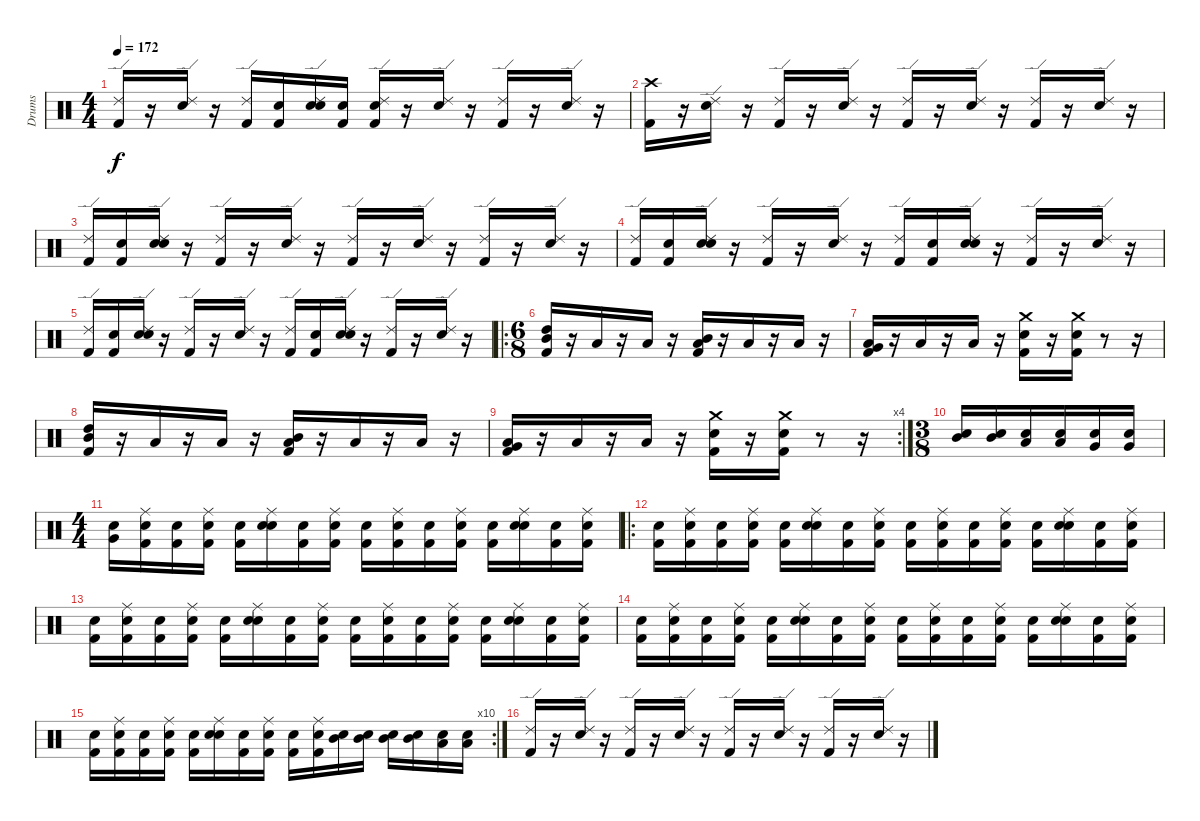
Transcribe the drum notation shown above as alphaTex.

\track ("Drums" "Drums") {instrument percussion}
\staff {score}
\articulation defaults
\ts (4 4)
\tempo 172
\clef neutral
\ks c
("Kick (hit) 2" "Ride (edge) 2").16{dy f} r.16 ("Snare (hit) 2" "Ride (edge) 2").16 r.16 ("Kick (hit) 2" "Ride (edge) 2").16 ("Snare (hit)" "Kick (hit) 2").16 ("Snare (hit)" "Snare (hit) 2" "Ride (edge) 2").16 ("Snare (hit)" "Kick (hit) 2").16 ("Snare (hit)" "Kick (hit) 2" "Ride (edge) 2").16 r.16 ("Snare (hit) 2" "Ride (edge) 2").16 r.16 ("Kick (hit) 2" "Ride (edge) 2").16 r.16 ("Snare (hit) 2" "Ride (edge) 2").16 r.16 |
("Kick (hit) 2" "Crash high (hit)").16 r.16 ("Snare (hit) 2" "Ride (edge) 2").16 r.16 ("Kick (hit) 2" "Ride (edge) 2").16 r.16 ("Snare (hit) 2" "Ride (edge) 2").16 r.16 ("Kick (hit) 2" "Ride (edge) 2").16 r.16 ("Snare (hit) 2" "Ride (edge) 2").16 r.16 ("Kick (hit) 2" "Ride (edge) 2").16 r.16 ("Snare (hit) 2" "Ride (edge) 2").16 r.16 |
("Kick (hit) 2" "Ride (edge) 2").16 ("Snare (hit)" "Kick (hit) 2").16 ("Snare (hit)" "Snare (hit) 2" "Ride (edge) 2").16 r.16 ("Kick (hit) 2" "Ride (edge) 2").16 r.16 ("Snare (hit) 2" "Ride (edge) 2").16 r.16 ("Kick (hit) 2" "Ride (edge) 2").16 r.16 ("Snare (hit) 2" "Ride (edge) 2").16 r.16 ("Kick (hit) 2" "Ride (edge) 2").16 r.16 ("Snare (hit) 2" "Ride (edge) 2").16 r.16 |
("Kick (hit) 2" "Ride (edge) 2").16 ("Snare (hit)" "Kick (hit) 2").16 ("Snare (hit)" "Snare (hit) 2" "Ride (edge) 2").16 r.16 ("Kick (hit) 2" "Ride (edge) 2").16 r.16 ("Snare (hit) 2" "Ride (edge) 2").16 r.16 ("Kick (hit) 2" "Ride (edge) 2").16 ("Snare (hit)" "Kick (hit) 2").16 ("Snare (hit)" "Snare (hit) 2" "Ride (edge) 2").16 r.16 ("Kick (hit) 2" "Ride (edge) 2").16 r.16 ("Snare (hit) 2" "Ride (edge) 2").16 r.16 |
("Kick (hit) 2" "Ride (edge) 2").16 ("Snare (hit)" "Kick (hit) 2").16 ("Snare (hit)" "Snare (hit) 2" "Ride (edge) 2").16 r.16 ("Kick (hit) 2" "Ride (edge) 2").16 r.16 ("Snare (hit) 2" "Ride (edge) 2").16 r.16 ("Kick (hit) 2" "Ride (edge) 2").16 ("Snare (hit)" "Kick (hit) 2").16 ("Snare (hit)" "Snare (hit) 2" "Ride (edge) 2").16 r.16 ("Kick (hit) 2" "Ride (edge) 2").16 r.16 ("Snare (hit) 2" "Ride (edge) 2").16 r.16 |
\ro
\ts (6 8)
("Kick (hit) 2" "Mid Tom (hit)" "High Tom (hit)").16 r.16 "Low Floor Tom (hit)".16 r.16 "Low Floor Tom (hit)".16 r.16 ("Kick (hit) 2" "Low Tom (hit)" "Mid Tom (hit)").16 r.16 "Low Floor Tom (hit)".16 r.16 "Low Floor Tom (hit)".16 r.16 |
("Kick (hit) 2" "Very Low Tom (hit)" "Low Tom (hit)").16 r.16 "Low Floor Tom (hit)".16 r.16 "Low Floor Tom (hit)".16 r.16 ("Kick (hit) 2" "Snare (hit) 2" "Crash medium (hit)").16 r.16 ("Kick (hit) 2" "Snare (hit) 2" "Crash medium (hit)").16 r.8 r.16 |
("Kick (hit) 2" "Mid Tom (hit)" "High Tom (hit)").16 r.16 "Low Floor Tom (hit)".16 r.16 "Low Floor Tom (hit)".16 r.16 ("Kick (hit) 2" "Low Tom (hit)" "Mid Tom (hit)").16 r.16 "Low Floor Tom (hit)".16 r.16 "Low Floor Tom (hit)".16 r.16 |
\rc 4
("Kick (hit) 2" "Very Low Tom (hit)" "Low Tom (hit)").16 r.16 "Low Floor Tom (hit)".16 r.16 "Low Floor Tom (hit)".16 r.16 ("Kick (hit) 2" "Snare (hit) 2" "Crash medium (hit)").16 r.16 ("Kick (hit) 2" "Snare (hit) 2" "Crash medium (hit)").16 r.8 r.16 |
\ts (3 8)
("Snare (hit)" "Mid Tom (hit)").16 ("Snare (hit)" "Mid Tom (hit)").16 ("Snare (hit)" "Low Tom (hit)").16 ("Snare (hit)" "Low Tom (hit)").16 ("Snare (hit)" "Very Low Tom (hit)").16 ("Snare (hit)" "Very Low Tom (hit)").16 |
\ts (4 4)
("Snare (hit)" "Very Low Tom (hit)").16 ("Snare (hit)" "Kick (hit) 2" "Ride (middle)").16 ("Snare (hit)" "Kick (hit) 2").16 ("Snare (hit)" "Kick (hit) 2" "Ride (middle)").16 ("Snare (hit)" "Kick (hit) 2").16 ("Snare (hit)" "Snare (hit) 2" "Ride (middle)").16 ("Snare (hit)" "Kick (hit) 2").16 ("Snare (hit)" "Kick (hit) 2" "Ride (middle)").16 ("Snare (hit)" "Kick (hit) 2").16 ("Snare (hit)" "Kick (hit) 2" "Ride (middle)").16 ("Snare (hit)" "Kick (hit) 2").16 ("Snare (hit)" "Kick (hit) 2" "Ride (middle)").16 ("Snare (hit)" "Kick (hit) 2").16 ("Snare (hit)" "Snare (hit) 2" "Ride (middle)").16 ("Snare (hit)" "Kick (hit) 2").16 ("Snare (hit)" "Kick (hit) 2" "Ride (middle)").16 |
\ro
("Snare (hit)" "Kick (hit) 2").16 ("Snare (hit)" "Kick (hit) 2" "Ride (middle)").16 ("Snare (hit)" "Kick (hit) 2").16 ("Snare (hit)" "Kick (hit) 2" "Ride (middle)").16 ("Snare (hit)" "Kick (hit) 2").16 ("Snare (hit)" "Snare (hit) 2" "Ride (middle)").16 ("Snare (hit)" "Kick (hit) 2").16 ("Snare (hit)" "Kick (hit) 2" "Ride (middle)").16 ("Snare (hit)" "Kick (hit) 2").16 ("Snare (hit)" "Kick (hit) 2" "Ride (middle)").16 ("Snare (hit)" "Kick (hit) 2").16 ("Snare (hit)" "Kick (hit) 2" "Ride (middle)").16 ("Snare (hit)" "Kick (hit) 2").16 ("Snare (hit)" "Snare (hit) 2" "Ride (middle)").16 ("Snare (hit)" "Kick (hit) 2").16 ("Snare (hit)" "Kick (hit) 2" "Ride (middle)").16 |
("Snare (hit)" "Kick (hit) 2").16 ("Snare (hit)" "Kick (hit) 2" "Ride (middle)").16 ("Snare (hit)" "Kick (hit) 2").16 ("Snare (hit)" "Kick (hit) 2" "Ride (middle)").16 ("Snare (hit)" "Kick (hit) 2").16 ("Snare (hit)" "Snare (hit) 2" "Ride (middle)").16 ("Snare (hit)" "Kick (hit) 2").16 ("Snare (hit)" "Kick (hit) 2" "Ride (middle)").16 ("Snare (hit)" "Kick (hit) 2").16 ("Snare (hit)" "Kick (hit) 2" "Ride (middle)").16 ("Snare (hit)" "Kick (hit) 2").16 ("Snare (hit)" "Kick (hit) 2" "Ride (middle)").16 ("Snare (hit)" "Kick (hit) 2").16 ("Snare (hit)" "Snare (hit) 2" "Ride (middle)").16 ("Snare (hit)" "Kick (hit) 2").16 ("Snare (hit)" "Kick (hit) 2" "Ride (middle)").16 |
("Snare (hit)" "Kick (hit) 2").16 ("Snare (hit)" "Kick (hit) 2" "Ride (middle)").16 ("Snare (hit)" "Kick (hit) 2").16 ("Snare (hit)" "Kick (hit) 2" "Ride (middle)").16 ("Snare (hit)" "Kick (hit) 2").16 ("Snare (hit)" "Snare (hit) 2" "Ride (middle)").16 ("Snare (hit)" "Kick (hit) 2").16 ("Snare (hit)" "Kick (hit) 2" "Ride (middle)").16 ("Snare (hit)" "Kick (hit) 2").16 ("Snare (hit)" "Kick (hit) 2" "Ride (middle)").16 ("Snare (hit)" "Kick (hit) 2").16 ("Snare (hit)" "Kick (hit) 2" "Ride (middle)").16 ("Snare (hit)" "Kick (hit) 2").16 ("Snare (hit)" "Snare (hit) 2" "Ride (middle)").16 ("Snare (hit)" "Kick (hit) 2").16 ("Snare (hit)" "Kick (hit) 2" "Ride (middle)").16 |
\rc 10
("Snare (hit)" "Kick (hit) 2").16 ("Snare (hit)" "Kick (hit) 2" "Ride (middle)").16 ("Snare (hit)" "Kick (hit) 2").16 ("Snare (hit)" "Kick (hit) 2" "Ride (middle)").16 ("Snare (hit)" "Kick (hit) 2").16 ("Snare (hit)" "Snare (hit) 2" "Ride (middle)").16 ("Snare (hit)" "Kick (hit) 2").16 ("Snare (hit)" "Kick (hit) 2" "Ride (middle)").16 ("Snare (hit)" "Kick (hit) 2").16 ("Snare (hit)" "Kick (hit) 2" "Ride (middle)").16 ("Snare (hit)" "Mid Tom (hit)").16 ("Snare (hit)" "Mid Tom (hit)").16 ("Snare (hit)" "Mid Tom (hit)").16 ("Snare (hit)" "Mid Tom (hit)").16 ("Snare (hit)" "Low Tom (hit)").16 ("Snare (hit)" "Low Tom (hit)").16 |
("Kick (hit) 2" "Ride (edge) 2").16 r.16 ("Snare (hit) 2" "Ride (edge) 2").16 r.16 ("Kick (hit) 2" "Ride (edge) 2").16 r.16 ("Snare (hit) 2" "Ride (edge) 2").16 r.16 ("Kick (hit) 2" "Ride (edge) 2").16 r.16 ("Snare (hit) 2" "Ride (edge) 2").16 r.16 ("Kick (hit) 2" "Ride (edge) 2").16 r.16 ("Snare (hit) 2" "Ride (edge) 2").16 r.16
